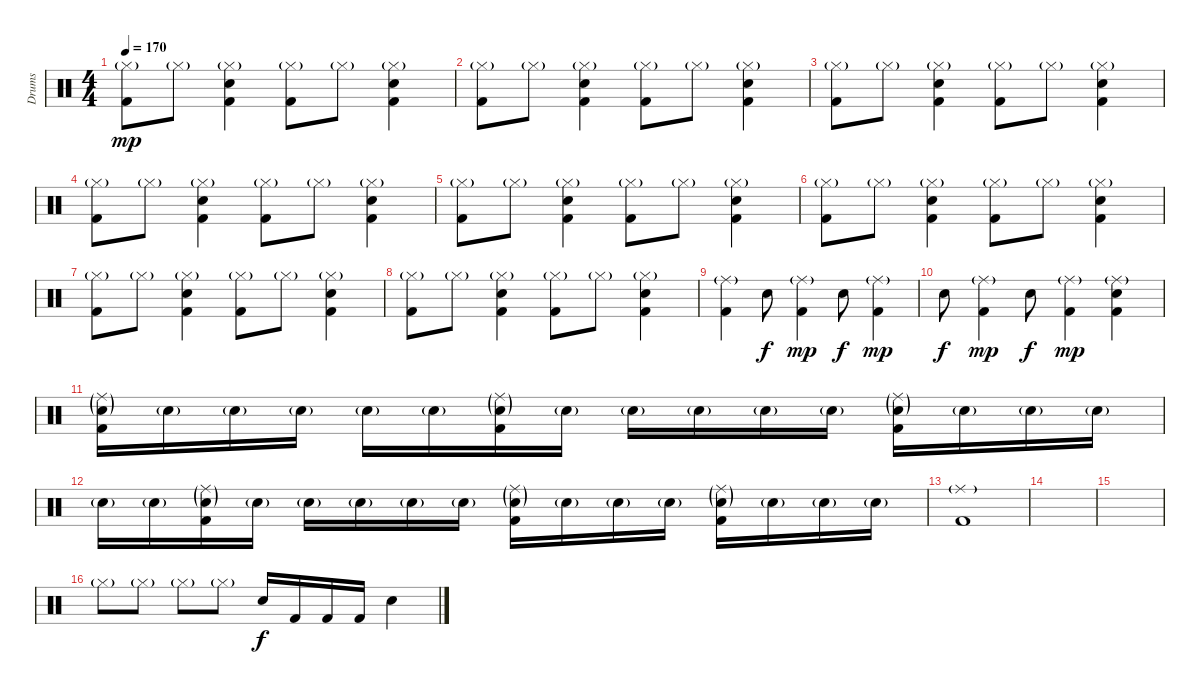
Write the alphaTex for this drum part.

\track ("Drums" "Drums") {instrument percussion}
\staff {score}
\articulation defaults
\ts (4 4)
\tempo 170
\clef neutral
\ks c
("Hi-Hat (closed)"{g} "Kick (hit) 2").8{dy mp} "Hi-Hat (closed)"{g}.8 ("Hi-Hat (closed)"{g} "Electric Snare (hit)" "Kick (hit) 2").4 ("Hi-Hat (closed)"{g} "Kick (hit) 2").8 "Hi-Hat (closed)"{g}.8 ("Hi-Hat (closed)"{g} "Electric Snare (hit)" "Kick (hit) 2").4 |
("Hi-Hat (closed)"{g} "Kick (hit) 2").8 "Hi-Hat (closed)"{g}.8 ("Hi-Hat (closed)"{g} "Electric Snare (hit)" "Kick (hit) 2").4 ("Hi-Hat (closed)"{g} "Kick (hit) 2").8 "Hi-Hat (closed)"{g}.8 ("Hi-Hat (closed)"{g} "Electric Snare (hit)" "Kick (hit) 2").4 |
("Hi-Hat (closed)"{g} "Kick (hit) 2").8 "Hi-Hat (closed)"{g}.8 ("Hi-Hat (closed)"{g} "Electric Snare (hit)" "Kick (hit) 2").4 ("Hi-Hat (closed)"{g} "Kick (hit) 2").8 "Hi-Hat (closed)"{g}.8 ("Hi-Hat (closed)"{g} "Electric Snare (hit)" "Kick (hit) 2").4 |
("Hi-Hat (closed)"{g} "Kick (hit) 2").8 "Hi-Hat (closed)"{g}.8 ("Hi-Hat (closed)"{g} "Electric Snare (hit)" "Kick (hit) 2").4 ("Hi-Hat (closed)"{g} "Kick (hit) 2").8 "Hi-Hat (closed)"{g}.8 ("Hi-Hat (closed)"{g} "Electric Snare (hit)" "Kick (hit) 2").4 |
("Hi-Hat (closed)"{g} "Kick (hit) 2").8 "Hi-Hat (closed)"{g}.8 ("Hi-Hat (closed)"{g} "Electric Snare (hit)" "Kick (hit) 2").4 ("Hi-Hat (closed)"{g} "Kick (hit) 2").8 "Hi-Hat (closed)"{g}.8 ("Hi-Hat (closed)"{g} "Electric Snare (hit)" "Kick (hit) 2").4 |
("Hi-Hat (closed)"{g} "Kick (hit) 2").8 "Hi-Hat (closed)"{g}.8 ("Hi-Hat (closed)"{g} "Electric Snare (hit)" "Kick (hit) 2").4 ("Hi-Hat (closed)"{g} "Kick (hit) 2").8 "Hi-Hat (closed)"{g}.8 ("Hi-Hat (closed)"{g} "Electric Snare (hit)" "Kick (hit) 2").4 |
("Hi-Hat (closed)"{g} "Kick (hit) 2").8 "Hi-Hat (closed)"{g}.8 ("Hi-Hat (closed)"{g} "Electric Snare (hit)" "Kick (hit) 2").4 ("Hi-Hat (closed)"{g} "Kick (hit) 2").8 "Hi-Hat (closed)"{g}.8 ("Hi-Hat (closed)"{g} "Electric Snare (hit)" "Kick (hit) 2").4 |
("Hi-Hat (closed)"{g} "Kick (hit) 2").8 "Hi-Hat (closed)"{g}.8 ("Hi-Hat (closed)"{g} "Electric Snare (hit)" "Kick (hit) 2").4 ("Hi-Hat (closed)"{g} "Kick (hit) 2").8 "Hi-Hat (closed)"{g}.8 ("Hi-Hat (closed)"{g} "Electric Snare (hit)" "Kick (hit) 2").4 |
("Ride (middle)"{g} "Kick (hit) 2").4 "Electric Snare (hit)".8{dy f} ("Ride (middle)"{g} "Kick (hit) 2").4{dy mp} "Electric Snare (hit)".8{dy f} ("Ride (middle)"{g} "Kick (hit) 2").4{dy mp} |
"Electric Snare (hit)".8{dy f} ("Ride (middle)"{g} "Kick (hit) 2").4{dy mp} "Electric Snare (hit)".8{dy f} ("Ride (middle)"{g} "Kick (hit) 2").4{dy mp} ("Ride (middle)"{g} "Electric Snare (hit)" "Kick (hit) 2").4 |
("Ride (middle)"{g} "Electric Snare (hit)"{g} "Kick (hit) 2").16 "Electric Snare (hit)"{g}.16 "Electric Snare (hit)"{g}.16 "Electric Snare (hit)"{g}.16 "Electric Snare (hit)"{g}.16 "Electric Snare (hit)"{g}.16 ("Ride (middle)"{g} "Electric Snare (hit)"{g} "Kick (hit) 2").16 "Electric Snare (hit)"{g}.16 "Electric Snare (hit)"{g}.16 "Electric Snare (hit)"{g}.16 "Electric Snare (hit)"{g}.16 "Electric Snare (hit)"{g}.16 ("Ride (middle)"{g} "Electric Snare (hit)"{g} "Kick (hit) 2").16 "Electric Snare (hit)"{g}.16 "Electric Snare (hit)"{g}.16 "Electric Snare (hit)"{g}.16 |
"Electric Snare (hit)"{g}.16 "Electric Snare (hit)"{g}.16 ("Ride (middle)"{g} "Electric Snare (hit)"{g} "Kick (hit) 2").16 "Electric Snare (hit)"{g}.16 "Electric Snare (hit)"{g}.16 "Electric Snare (hit)"{g}.16 "Electric Snare (hit)"{g}.16 "Electric Snare (hit)"{g}.16 ("Ride (middle)"{g} "Electric Snare (hit)"{g} "Kick (hit) 2").16 "Electric Snare (hit)"{g}.16 "Electric Snare (hit)"{g}.16 "Electric Snare (hit)"{g}.16 ("Ride (middle)"{g} "Electric Snare (hit)"{g} "Kick (hit) 2").16 "Electric Snare (hit)"{g}.16 "Electric Snare (hit)"{g}.16 "Electric Snare (hit)"{g}.16 |
("Ride (middle)"{g} "Kick (hit) 2").1 |
|
|
"Hi-Hat (closed)"{g}.8 "Hi-Hat (closed)"{g}.8 "Hi-Hat (closed)"{g}.8 "Hi-Hat (closed)"{g}.8 "Electric Snare (hit)".16{dy f} "Kick (hit) 2".16 "Kick (hit) 2".16 "Kick (hit) 2".16 "Electric Snare (hit)".4
